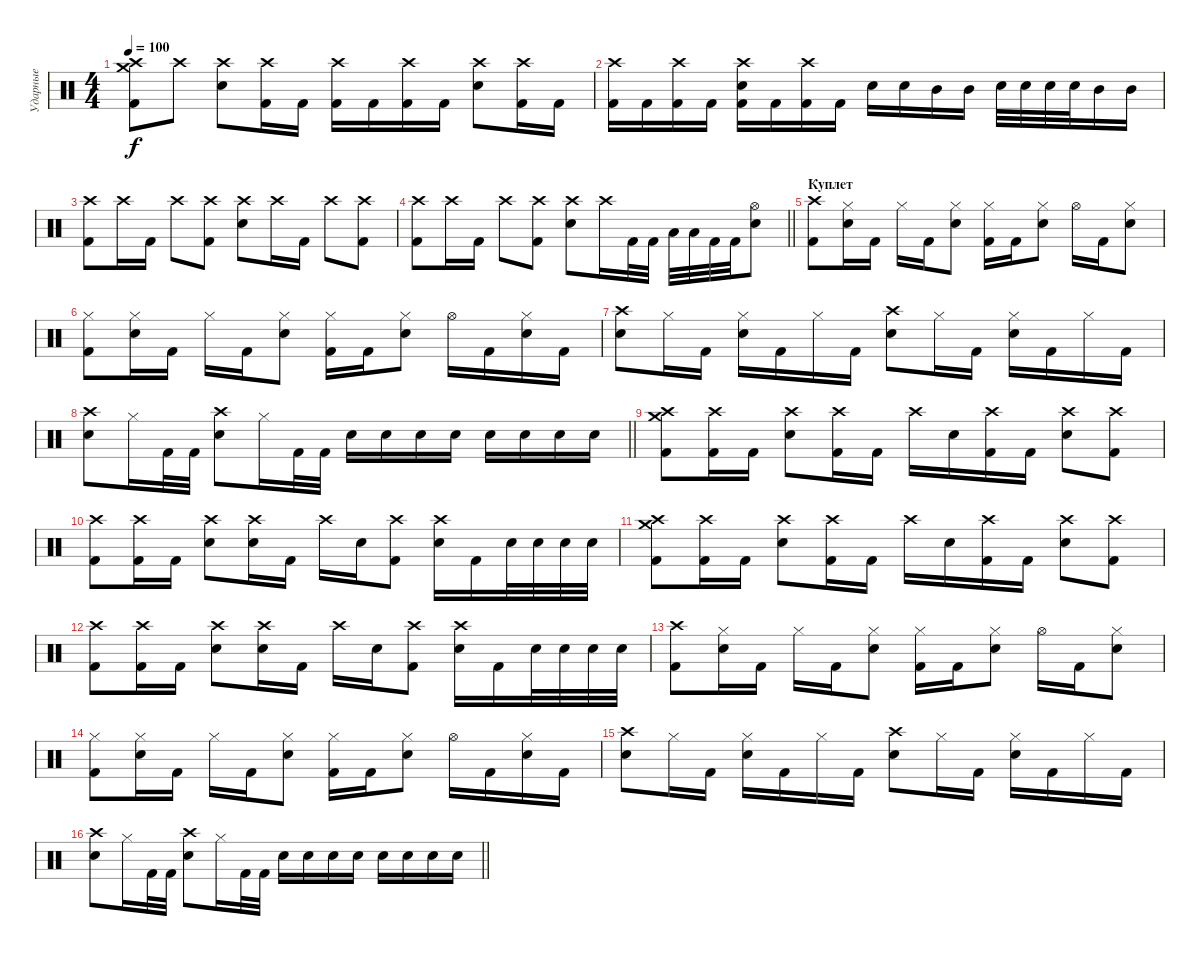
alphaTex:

\track ("Ударные" "Ударные") {instrument percussion}
\staff {score}
\articulation defaults
\ts (4 4)
\tempo 100
\clef neutral
\ks c
("Kick (hit) 2" "Crash high (hit)" "Crash medium (hit)").8{dy f} "Crash high (hit)".8 ("Crash high (hit)" "Snare (hit) 2").8 ("Crash high (hit)" "Kick (hit) 2").16 "Kick (hit) 2".16 ("Kick (hit) 2" "Crash high (hit)").16 "Kick (hit) 2".16 ("Kick (hit) 2" "Crash high (hit)").16 "Kick (hit) 2".16 ("Snare (hit) 2" "Crash high (hit)").8 ("Crash high (hit)" "Kick (hit) 2").16 "Kick (hit) 2".16 |
("Kick (hit) 2" "Crash high (hit)").16 "Kick (hit) 2".16 ("Kick (hit) 2" "Crash high (hit)").16 "Kick (hit) 2".16 ("Crash high (hit)" "Snare (hit) 2" "Kick (hit) 2").16 "Kick (hit) 2".16 ("Kick (hit) 2" "Crash high (hit)").16 "Kick (hit) 2".16 "Snare (hit) 2".16 "Snare (hit) 2".16 "Mid Tom (hit)".16 "Mid Tom (hit)".16 "Snare (hit) 2".32 "Snare (hit) 2".32 "Snare (hit) 2".32 "Snare (hit) 2".32 "Mid Tom (hit)".16 "Mid Tom (hit)".16 |
("Crash high (hit)" "Kick (hit) 2").8 "Crash high (hit)".16 "Kick (hit) 2".16 "Crash high (hit)".8 ("Crash high (hit)" "Kick (hit) 2").8 ("Crash high (hit)" "Snare (hit) 2").8 "Crash high (hit)".16 "Kick (hit) 2".16 "Crash high (hit)".8 ("Kick (hit) 2" "Crash high (hit)").8 |
\barLineRight lightlight
("Crash high (hit)" "Kick (hit) 2").8 "Crash high (hit)".16 "Kick (hit) 2".16 "Crash high (hit)".8 ("Crash high (hit)" "Kick (hit) 2").8 ("Crash high (hit)" "Snare (hit) 2").8 "Crash high (hit)".16 "Kick (hit) 2".32 "Kick (hit) 2".32 "Low Tom (hit)".32 "Low Floor Tom (hit)".32 "Kick (hit) 2".32 "Kick (hit) 2".32 ("Hi-Hat (open)" "Snare (hit) 2").8 |
\section ("" "Куплет")
("Crash high (hit)" "Kick (hit) 2").8 ("Hi-Hat (closed)" "Snare (hit) 2").16 "Kick (hit) 2".16 "Hi-Hat (closed)".16 "Kick (hit) 2".16 ("Hi-Hat (closed)" "Snare (hit) 2").8 ("Hi-Hat (closed)" "Kick (hit) 2").16 "Kick (hit) 2".16 ("Hi-Hat (closed)" "Snare (hit) 2").8 "Hi-Hat (open)".16 "Kick (hit) 2".16 ("Hi-Hat (closed)" "Snare (hit) 2").8 |
("Hi-Hat (closed)" "Kick (hit) 2").8 ("Hi-Hat (closed)" "Snare (hit) 2").16 "Kick (hit) 2".16 "Hi-Hat (closed)".16 "Kick (hit) 2".16 ("Hi-Hat (closed)" "Snare (hit) 2").8 ("Hi-Hat (closed)" "Kick (hit) 2").16 "Kick (hit) 2".16 ("Hi-Hat (closed)" "Snare (hit) 2").8 "Hi-Hat (open)".16 "Kick (hit) 2".16 ("Hi-Hat (closed)" "Snare (hit) 2").16 "Kick (hit) 2".16 |
("Crash high (hit)" "Snare (hit) 2").8 "Hi-Hat (closed)".16 "Kick (hit) 2".16 ("Snare (hit) 2" "Hi-Hat (closed)").16 "Kick (hit) 2".16 "Hi-Hat (closed)".16 "Kick (hit) 2".16 ("Crash high (hit)" "Snare (hit) 2").8 "Hi-Hat (closed)".16 "Kick (hit) 2".16 ("Hi-Hat (closed)" "Snare (hit) 2").16 "Kick (hit) 2".16 "Hi-Hat (closed)".16 "Kick (hit) 2".16 |
\barLineRight lightlight
("Crash high (hit)" "Snare (hit) 2").8 "Hi-Hat (closed)".16 "Kick (hit) 2".32 "Kick (hit) 2".32 ("Crash high (hit)" "Snare (hit) 2").8 "Hi-Hat (closed)".16 "Kick (hit) 2".32 "Kick (hit) 2".32 "Snare (hit) 2".16 "Snare (hit) 2".16 "Snare (hit) 2".16 "Snare (hit) 2".16 "Snare (hit) 2".16 "Snare (hit) 2".16 "Snare (hit) 2".16 "Snare (hit) 2".16 |
("Crash high (hit)" "Kick (hit) 2" "Crash medium (hit)").8 ("Crash high (hit)" "Kick (hit) 2").16 "Kick (hit) 2".16 ("Crash high (hit)" "Snare (hit) 2").8 ("Crash high (hit)" "Kick (hit) 2").16 "Kick (hit) 2".16 "Crash high (hit)".16 "Snare (hit) 2".16 ("Kick (hit) 2" "Crash high (hit)").16 "Kick (hit) 2".16 ("Snare (hit) 2" "Crash high (hit)").8 ("Crash high (hit)" "Kick (hit) 2").8 |
("Crash high (hit)" "Kick (hit) 2").8 ("Crash high (hit)" "Kick (hit) 2").16 "Kick (hit) 2".16 ("Crash high (hit)" "Snare (hit) 2").8 ("Crash high (hit)" "Snare (hit) 2").16 "Kick (hit) 2".16 "Crash high (hit)".16 "Snare (hit) 2".16 ("Kick (hit) 2" "Crash high (hit)").8 ("Snare (hit) 2" "Crash high (hit)").16 "Kick (hit) 2".16 "Snare (hit) 2".32 "Snare (hit) 2".32 "Snare (hit) 2".32 "Snare (hit) 2".32 |
("Crash high (hit)" "Kick (hit) 2" "Crash medium (hit)").8 ("Crash high (hit)" "Kick (hit) 2").16 "Kick (hit) 2".16 ("Crash high (hit)" "Snare (hit) 2").8 ("Crash high (hit)" "Kick (hit) 2").16 "Kick (hit) 2".16 "Crash high (hit)".16 "Snare (hit) 2".16 ("Kick (hit) 2" "Crash high (hit)").16 "Kick (hit) 2".16 ("Snare (hit) 2" "Crash high (hit)").8 ("Crash high (hit)" "Kick (hit) 2").8 |
("Crash high (hit)" "Kick (hit) 2").8 ("Crash high (hit)" "Kick (hit) 2").16 "Kick (hit) 2".16 ("Crash high (hit)" "Snare (hit) 2").8 ("Crash high (hit)" "Snare (hit) 2").16 "Kick (hit) 2".16 "Crash high (hit)".16 "Snare (hit) 2".16 ("Kick (hit) 2" "Crash high (hit)").8 ("Snare (hit) 2" "Crash high (hit)").16 "Kick (hit) 2".16 "Snare (hit) 2".32 "Snare (hit) 2".32 "Snare (hit) 2".32 "Snare (hit) 2".32 |
("Crash high (hit)" "Kick (hit) 2").8 ("Hi-Hat (closed)" "Snare (hit) 2").16 "Kick (hit) 2".16 "Hi-Hat (closed)".16 "Kick (hit) 2".16 ("Hi-Hat (closed)" "Snare (hit) 2").8 ("Hi-Hat (closed)" "Kick (hit) 2").16 "Kick (hit) 2".16 ("Hi-Hat (closed)" "Snare (hit) 2").8 "Hi-Hat (open)".16 "Kick (hit) 2".16 ("Hi-Hat (closed)" "Snare (hit) 2").8 |
("Hi-Hat (closed)" "Kick (hit) 2").8 ("Hi-Hat (closed)" "Snare (hit) 2").16 "Kick (hit) 2".16 "Hi-Hat (closed)".16 "Kick (hit) 2".16 ("Hi-Hat (closed)" "Snare (hit) 2").8 ("Hi-Hat (closed)" "Kick (hit) 2").16 "Kick (hit) 2".16 ("Hi-Hat (closed)" "Snare (hit) 2").8 "Hi-Hat (open)".16 "Kick (hit) 2".16 ("Hi-Hat (closed)" "Snare (hit) 2").16 "Kick (hit) 2".16 |
("Crash high (hit)" "Snare (hit) 2").8 "Hi-Hat (closed)".16 "Kick (hit) 2".16 ("Snare (hit) 2" "Hi-Hat (closed)").16 "Kick (hit) 2".16 "Hi-Hat (closed)".16 "Kick (hit) 2".16 ("Crash high (hit)" "Snare (hit) 2").8 "Hi-Hat (closed)".16 "Kick (hit) 2".16 ("Hi-Hat (closed)" "Snare (hit) 2").16 "Kick (hit) 2".16 "Hi-Hat (closed)".16 "Kick (hit) 2".16 |
\barLineRight lightlight
("Crash high (hit)" "Snare (hit) 2").8 "Hi-Hat (closed)".16 "Kick (hit) 2".32 "Kick (hit) 2".32 ("Crash high (hit)" "Snare (hit) 2").8 "Hi-Hat (closed)".16 "Kick (hit) 2".32 "Kick (hit) 2".32 "Snare (hit) 2".16 "Snare (hit) 2".16 "Snare (hit) 2".16 "Snare (hit) 2".16 "Snare (hit) 2".16 "Snare (hit) 2".16 "Snare (hit) 2".16 "Snare (hit) 2".16
